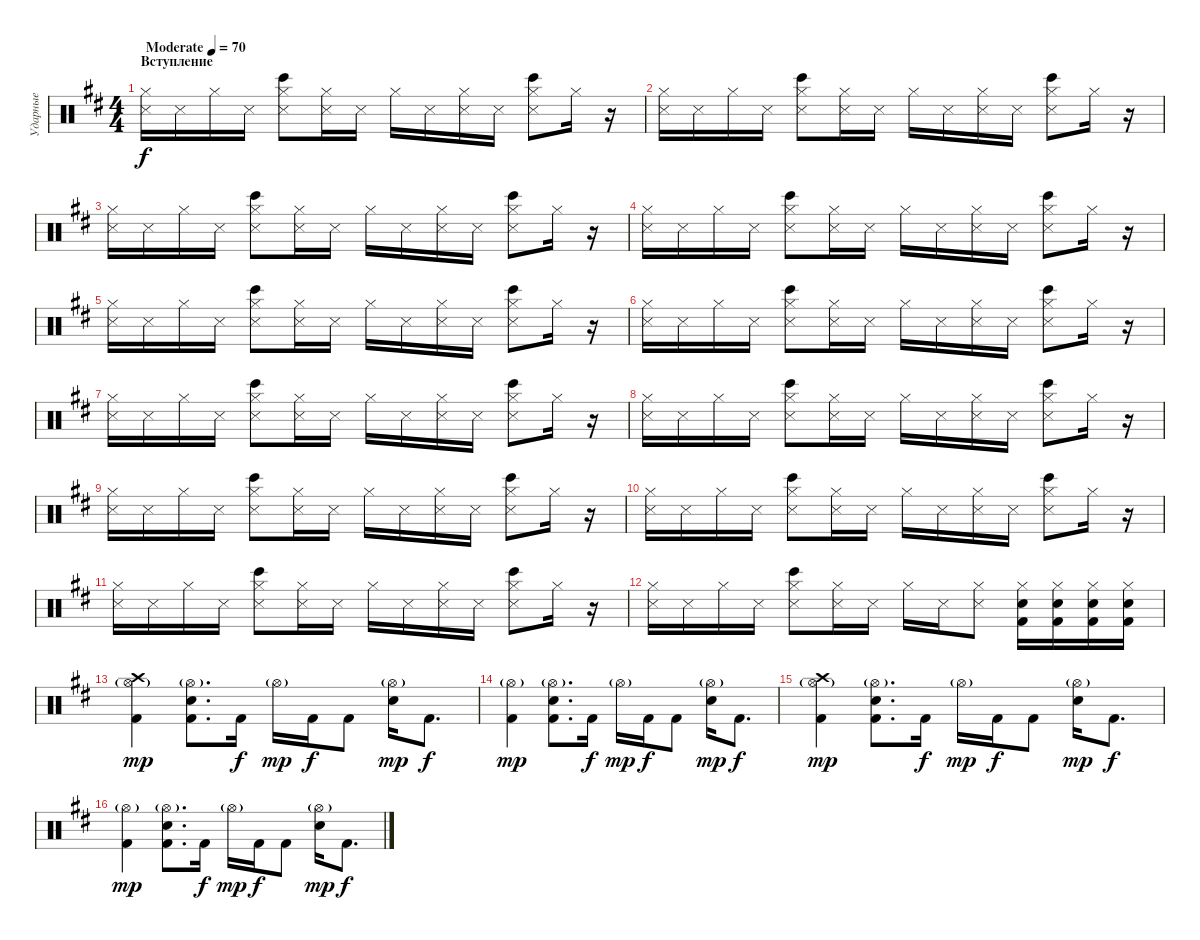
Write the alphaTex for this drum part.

\track ("Ударные" "Ударные") {instrument percussion}
\staff {score}
\articulation defaults
\ts (4 4)
\section ("" "Вступление")
\tempo (70 "Moderate")
\clef neutral
\ks bminor
("Hi-Hat (closed)" "Snare (side stick) 3").16{dy f} "Snare (side stick) 3".16 "Hi-Hat (closed)".16 "Snare (side stick) 3".16 ("Hi-Hat (closed)" "Bongo High (hit)" "Snare (side stick) 3").8 ("Hi-Hat (closed)" "Snare (side stick) 3").16 "Snare (side stick) 3".16 "Hi-Hat (closed)".16 "Snare (side stick) 3".16 ("Hi-Hat (closed)" "Snare (side stick) 3").16 "Snare (side stick) 3".16 ("Hi-Hat (closed)" "Bongo High (hit)" "Snare (side stick) 3").8 "Hi-Hat (closed)".16 r.16 |
("Hi-Hat (closed)" "Snare (side stick) 3").16 "Snare (side stick) 3".16 "Hi-Hat (closed)".16 "Snare (side stick) 3".16 ("Hi-Hat (closed)" "Bongo High (hit)" "Snare (side stick) 3").8 ("Hi-Hat (closed)" "Snare (side stick) 3").16 "Snare (side stick) 3".16 "Hi-Hat (closed)".16 "Snare (side stick) 3".16 ("Hi-Hat (closed)" "Snare (side stick) 3").16 "Snare (side stick) 3".16 ("Hi-Hat (closed)" "Bongo High (hit)" "Snare (side stick) 3").8 "Hi-Hat (closed)".16 r.16 |
("Hi-Hat (closed)" "Snare (side stick) 3").16 "Snare (side stick) 3".16 "Hi-Hat (closed)".16 "Snare (side stick) 3".16 ("Hi-Hat (closed)" "Bongo High (hit)" "Snare (side stick) 3").8 ("Hi-Hat (closed)" "Snare (side stick) 3").16 "Snare (side stick) 3".16 "Hi-Hat (closed)".16 "Snare (side stick) 3".16 ("Hi-Hat (closed)" "Snare (side stick) 3").16 "Snare (side stick) 3".16 ("Hi-Hat (closed)" "Bongo High (hit)" "Snare (side stick) 3").8 "Hi-Hat (closed)".16 r.16 |
("Hi-Hat (closed)" "Snare (side stick) 3").16 "Snare (side stick) 3".16 "Hi-Hat (closed)".16 "Snare (side stick) 3".16 ("Hi-Hat (closed)" "Bongo High (hit)" "Snare (side stick) 3").8 ("Hi-Hat (closed)" "Snare (side stick) 3").16 "Snare (side stick) 3".16 "Hi-Hat (closed)".16 "Snare (side stick) 3".16 ("Hi-Hat (closed)" "Snare (side stick) 3").16 "Snare (side stick) 3".16 ("Hi-Hat (closed)" "Bongo High (hit)" "Snare (side stick) 3").8 "Hi-Hat (closed)".16 r.16 |
("Hi-Hat (closed)" "Snare (side stick) 3").16 "Snare (side stick) 3".16 "Hi-Hat (closed)".16 "Snare (side stick) 3".16 ("Hi-Hat (closed)" "Bongo High (hit)" "Snare (side stick) 3").8 ("Hi-Hat (closed)" "Snare (side stick) 3").16 "Snare (side stick) 3".16 "Hi-Hat (closed)".16 "Snare (side stick) 3".16 ("Hi-Hat (closed)" "Snare (side stick) 3").16 "Snare (side stick) 3".16 ("Hi-Hat (closed)" "Bongo High (hit)" "Snare (side stick) 3").8 "Hi-Hat (closed)".16 r.16 |
("Hi-Hat (closed)" "Snare (side stick) 3").16 "Snare (side stick) 3".16 "Hi-Hat (closed)".16 "Snare (side stick) 3".16 ("Hi-Hat (closed)" "Bongo High (hit)" "Snare (side stick) 3").8 ("Hi-Hat (closed)" "Snare (side stick) 3").16 "Snare (side stick) 3".16 "Hi-Hat (closed)".16 "Snare (side stick) 3".16 ("Hi-Hat (closed)" "Snare (side stick) 3").16 "Snare (side stick) 3".16 ("Hi-Hat (closed)" "Bongo High (hit)" "Snare (side stick) 3").8 "Hi-Hat (closed)".16 r.16 |
("Hi-Hat (closed)" "Snare (side stick) 3").16 "Snare (side stick) 3".16 "Hi-Hat (closed)".16 "Snare (side stick) 3".16 ("Hi-Hat (closed)" "Bongo High (hit)" "Snare (side stick) 3").8 ("Hi-Hat (closed)" "Snare (side stick) 3").16 "Snare (side stick) 3".16 "Hi-Hat (closed)".16 "Snare (side stick) 3".16 ("Hi-Hat (closed)" "Snare (side stick) 3").16 "Snare (side stick) 3".16 ("Hi-Hat (closed)" "Bongo High (hit)" "Snare (side stick) 3").8 "Hi-Hat (closed)".16 r.16 |
("Hi-Hat (closed)" "Snare (side stick) 3").16 "Snare (side stick) 3".16 "Hi-Hat (closed)".16 "Snare (side stick) 3".16 ("Hi-Hat (closed)" "Bongo High (hit)" "Snare (side stick) 3").8 ("Hi-Hat (closed)" "Snare (side stick) 3").16 "Snare (side stick) 3".16 "Hi-Hat (closed)".16 "Snare (side stick) 3".16 ("Hi-Hat (closed)" "Snare (side stick) 3").16 "Snare (side stick) 3".16 ("Hi-Hat (closed)" "Bongo High (hit)" "Snare (side stick) 3").8 "Hi-Hat (closed)".16 r.16 |
("Hi-Hat (closed)" "Snare (side stick) 3").16 "Snare (side stick) 3".16 "Hi-Hat (closed)".16 "Snare (side stick) 3".16 ("Hi-Hat (closed)" "Bongo High (hit)" "Snare (side stick) 3").8 ("Hi-Hat (closed)" "Snare (side stick) 3").16 "Snare (side stick) 3".16 "Hi-Hat (closed)".16 "Snare (side stick) 3".16 ("Hi-Hat (closed)" "Snare (side stick) 3").16 "Snare (side stick) 3".16 ("Hi-Hat (closed)" "Bongo High (hit)" "Snare (side stick) 3").8 "Hi-Hat (closed)".16 r.16 |
("Hi-Hat (closed)" "Snare (side stick) 3").16 "Snare (side stick) 3".16 "Hi-Hat (closed)".16 "Snare (side stick) 3".16 ("Hi-Hat (closed)" "Bongo High (hit)" "Snare (side stick) 3").8 ("Hi-Hat (closed)" "Snare (side stick) 3").16 "Snare (side stick) 3".16 "Hi-Hat (closed)".16 "Snare (side stick) 3".16 ("Hi-Hat (closed)" "Snare (side stick) 3").16 "Snare (side stick) 3".16 ("Hi-Hat (closed)" "Bongo High (hit)" "Snare (side stick) 3").8 "Hi-Hat (closed)".16 r.16 |
("Hi-Hat (closed)" "Snare (side stick) 3").16 "Snare (side stick) 3".16 "Hi-Hat (closed)".16 "Snare (side stick) 3".16 ("Hi-Hat (closed)" "Bongo High (hit)" "Snare (side stick) 3").8 ("Hi-Hat (closed)" "Snare (side stick) 3").16 "Snare (side stick) 3".16 "Hi-Hat (closed)".16 "Snare (side stick) 3".16 ("Hi-Hat (closed)" "Snare (side stick) 3").16 "Snare (side stick) 3".16 ("Hi-Hat (closed)" "Bongo High (hit)" "Snare (side stick) 3").8 "Hi-Hat (closed)".16 r.16 |
("Hi-Hat (closed)" "Snare (side stick) 3").16 "Snare (side stick) 3".16 "Hi-Hat (closed)".16 "Snare (side stick) 3".16 ("Hi-Hat (closed)" "Bongo High (hit)" "Snare (side stick) 3").8 ("Hi-Hat (closed)" "Snare (side stick) 3").16 "Snare (side stick) 3".16 "Hi-Hat (closed)".16 "Snare (side stick) 3".16 ("Hi-Hat (closed)" "Snare (side stick) 3").8 ("Hi-Hat (closed)" "Electric Snare (hit)" "Kick (hit) 2").16 ("Hi-Hat (closed)" "Electric Snare (hit)" "Kick (hit) 2").16 ("Hi-Hat (closed)" "Electric Snare (hit)" "Kick (hit) 2").16 ("Hi-Hat (closed)" "Electric Snare (hit)" "Kick (hit) 2").16 |
("Crash high (hit)" "Hi-Hat (open)"{g} "Kick (hit) 2").4{dy mp} ("Hi-Hat (open)"{g} "Electric Snare (hit)" "Kick (hit) 2").8{d} "Kick (hit) 2".16{dy f} "Hi-Hat (open)"{g}.16{dy mp} "Kick (hit) 2".16{dy f} "Kick (hit) 2".8 ("Hi-Hat (open)"{g} "Electric Snare (hit)").16{dy mp} "Kick (hit) 2".8{d dy f} |
("Hi-Hat (open)"{g} "Kick (hit) 2").4{dy mp} ("Hi-Hat (open)"{g} "Electric Snare (hit)" "Kick (hit) 2").8{d} "Kick (hit) 2".16{dy f} "Hi-Hat (open)"{g}.16{dy mp} "Kick (hit) 2".16{dy f} "Kick (hit) 2".8 ("Hi-Hat (open)"{g} "Electric Snare (hit)").16{dy mp} "Kick (hit) 2".8{d dy f} |
("Crash high (hit)" "Hi-Hat (open)"{g} "Kick (hit) 2").4{dy mp} ("Hi-Hat (open)"{g} "Electric Snare (hit)" "Kick (hit) 2").8{d} "Kick (hit) 2".16{dy f} "Hi-Hat (open)"{g}.16{dy mp} "Kick (hit) 2".16{dy f} "Kick (hit) 2".8 ("Hi-Hat (open)"{g} "Electric Snare (hit)").16{dy mp} "Kick (hit) 2".8{d dy f} |
("Hi-Hat (open)"{g} "Kick (hit) 2").4{dy mp} ("Hi-Hat (open)"{g} "Electric Snare (hit)" "Kick (hit) 2").8{d} "Kick (hit) 2".16{dy f} "Hi-Hat (open)"{g}.16{dy mp} "Kick (hit) 2".16{dy f} "Kick (hit) 2".8 ("Hi-Hat (open)"{g} "Electric Snare (hit)").16{dy mp} "Kick (hit) 2".8{d dy f}
